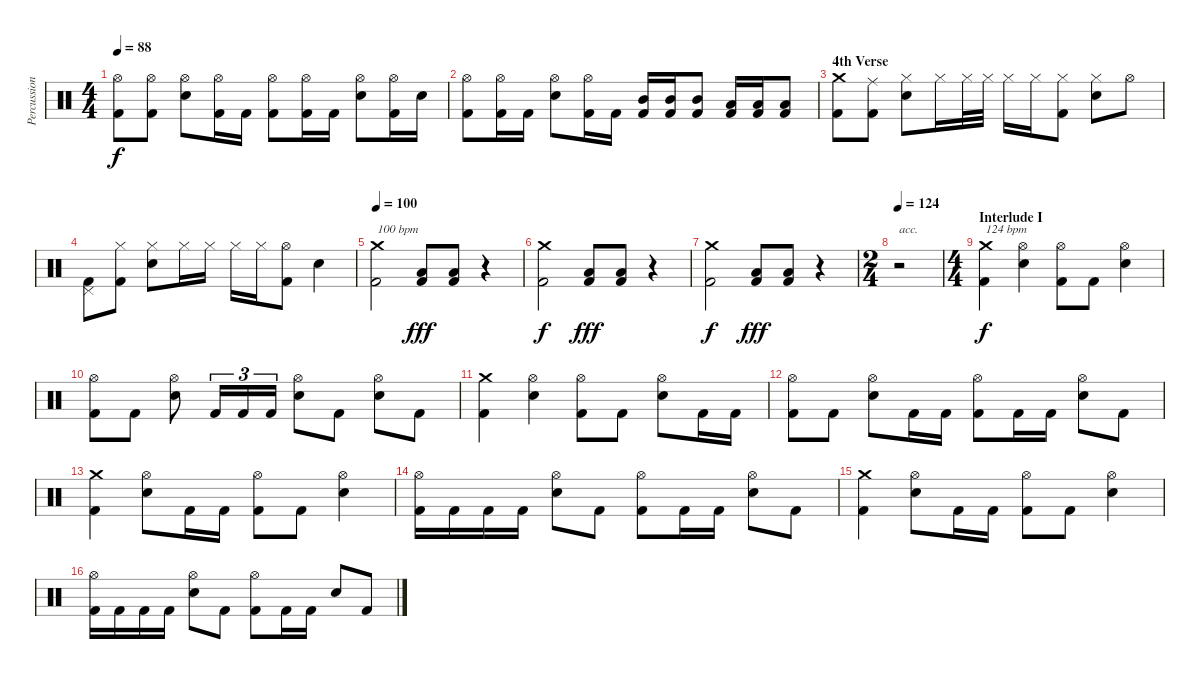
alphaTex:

\track ("Percussion" "Percussion") {instrument percussion}
\staff {score}
\articulation defaults
\ts (4 4)
\tempo 88
\clef neutral
\ks c
("Kick (hit) 2" "Hi-Hat (open)").8{dy f} ("Kick (hit) 2" "Hi-Hat (open)").8 ("Electric Snare (hit)" "Hi-Hat (open)").8 ("Kick (hit) 2" "Hi-Hat (open)").16 "Kick (hit) 2".16 ("Kick (hit) 2" "Hi-Hat (open)").8 ("Kick (hit) 2" "Hi-Hat (open)").16 "Kick (hit) 2".16 ("Electric Snare (hit)" "Hi-Hat (open)").8 ("Kick (hit) 2" "Hi-Hat (open)").16 "Electric Snare (hit)".16 |
("Kick (hit) 2" "Hi-Hat (open)").8 ("Kick (hit) 2" "Hi-Hat (open)").16 "Kick (hit) 2".16 ("Electric Snare (hit)" "Hi-Hat (open)").8 ("Kick (hit) 2" "Hi-Hat (open)").16 "Kick (hit) 2".16 ("Kick (hit) 2" "Mid Tom (hit)").16 ("Kick (hit) 2" "Mid Tom (hit)").16 ("Kick (hit) 2" "Mid Tom (hit)").8 ("Kick (hit) 2" "Low Tom (hit)").16 ("Kick (hit) 2" "Low Tom (hit)").16 ("Kick (hit) 2" "Low Tom (hit)").8 |
\section ("" "4th Verse")
("Kick (hit) 2" "Crash medium (hit)").8 ("Kick (hit) 2" "Ride (middle)").8 ("Electric Snare (hit)" "Hi-Hat (closed)").8 "Hi-Hat (closed)".16 "Hi-Hat (closed)".32 "Hi-Hat (closed)".32 "Hi-Hat (closed)".16 "Hi-Hat (closed)".16 ("Kick (hit) 2" "Hi-Hat (closed)").8 ("Electric Snare (hit)" "Hi-Hat (closed)").8 "Hi-Hat (open)".8 |
("Kick (hit) 2" "Pedal Hi-Hat (hit)").8 ("Kick (hit) 2" "Hi-Hat (closed)").8 ("Electric Snare (hit)" "Hi-Hat (closed)").8 "Hi-Hat (closed)".16 "Hi-Hat (closed)".16 "Hi-Hat (closed)".16 "Hi-Hat (closed)".16 ("Kick (hit) 2" "Hi-Hat (open)").8 "Electric Snare (hit)".4 |
\tempo 100
("Kick (hit) 2" "Crash medium (hit)").2{txt "100 bpm"} ("Kick (hit) 2" "Low Floor Tom (hit)").8{dy fff} ("Kick (hit) 2" "Low Floor Tom (hit)").8 r.4 |
("Kick (hit) 2" "Crash medium (hit)").2{dy f} ("Kick (hit) 2" "Low Floor Tom (hit)").8{dy fff} ("Kick (hit) 2" "Low Floor Tom (hit)").8 r.4 |
("Kick (hit) 2" "Crash medium (hit)").2{dy f} ("Kick (hit) 2" "Low Floor Tom (hit)").8{dy fff} ("Kick (hit) 2" "Low Floor Tom (hit)").8 r.4 |
\ts (2 4)
\tempo 124
r.2{txt "acc."} |
\ts (4 4)
\section ("" "Interlude I")
("Kick (hit) 2" "Crash medium (hit)").4{txt "124 bpm" dy f} ("Electric Snare (hit)" "Hi-Hat (open)").4 ("Kick (hit) 2" "Hi-Hat (open)").8 "Kick (hit) 2".8 ("Electric Snare (hit)" "Hi-Hat (open)").4 |
("Kick (hit) 2" "Hi-Hat (open)").8 "Kick (hit) 2".8 ("Electric Snare (hit)" "Hi-Hat (open)").8 "Kick (hit) 2".16{tu (3 2)} "Kick (hit) 2".16{tu (3 2)} "Kick (hit) 2".16{tu (3 2)} ("Electric Snare (hit)" "Hi-Hat (open)").8 "Kick (hit) 2".8 ("Electric Snare (hit)" "Hi-Hat (open)").8 "Kick (hit) 2".8 |
("Kick (hit) 2" "Crash medium (hit)").4 ("Electric Snare (hit)" "Hi-Hat (open)").4 ("Kick (hit) 2" "Hi-Hat (open)").8 "Kick (hit) 2".8 ("Electric Snare (hit)" "Hi-Hat (open)").8 "Kick (hit) 2".16 "Kick (hit) 2".16 |
("Kick (hit) 2" "Hi-Hat (open)").8 "Kick (hit) 2".8 ("Electric Snare (hit)" "Hi-Hat (open)").8 "Kick (hit) 2".16 "Kick (hit) 2".16 ("Kick (hit) 2" "Hi-Hat (open)").8 "Kick (hit) 2".16 "Kick (hit) 2".16 ("Electric Snare (hit)" "Hi-Hat (open)").8 "Kick (hit) 2".8 |
("Kick (hit) 2" "Crash medium (hit)").4 ("Electric Snare (hit)" "Hi-Hat (open)").8 "Kick (hit) 2".16 "Kick (hit) 2".16 ("Kick (hit) 2" "Hi-Hat (open)").8 "Kick (hit) 2".8 ("Electric Snare (hit)" "Hi-Hat (open)").4 |
("Kick (hit) 2" "Hi-Hat (open)").16 "Kick (hit) 2".16 "Kick (hit) 2".16 "Kick (hit) 2".16 ("Electric Snare (hit)" "Hi-Hat (open)").8 "Kick (hit) 2".8 ("Kick (hit) 2" "Hi-Hat (open)").8 "Kick (hit) 2".16 "Kick (hit) 2".16 ("Electric Snare (hit)" "Hi-Hat (open)").8 "Kick (hit) 2".8 |
("Kick (hit) 2" "Crash medium (hit)").4 ("Electric Snare (hit)" "Hi-Hat (open)").8 "Kick (hit) 2".16 "Kick (hit) 2".16 ("Kick (hit) 2" "Hi-Hat (open)").8 "Kick (hit) 2".8 ("Electric Snare (hit)" "Hi-Hat (open)").4 |
("Kick (hit) 2" "Hi-Hat (open)").16 "Kick (hit) 2".16 "Kick (hit) 2".16 "Kick (hit) 2".16 ("Electric Snare (hit)" "Hi-Hat (open)").8 "Kick (hit) 2".8 ("Kick (hit) 2" "Hi-Hat (open)").8 "Kick (hit) 2".16 "Kick (hit) 2".16 "Electric Snare (hit)".8 "Kick (hit) 2".8
